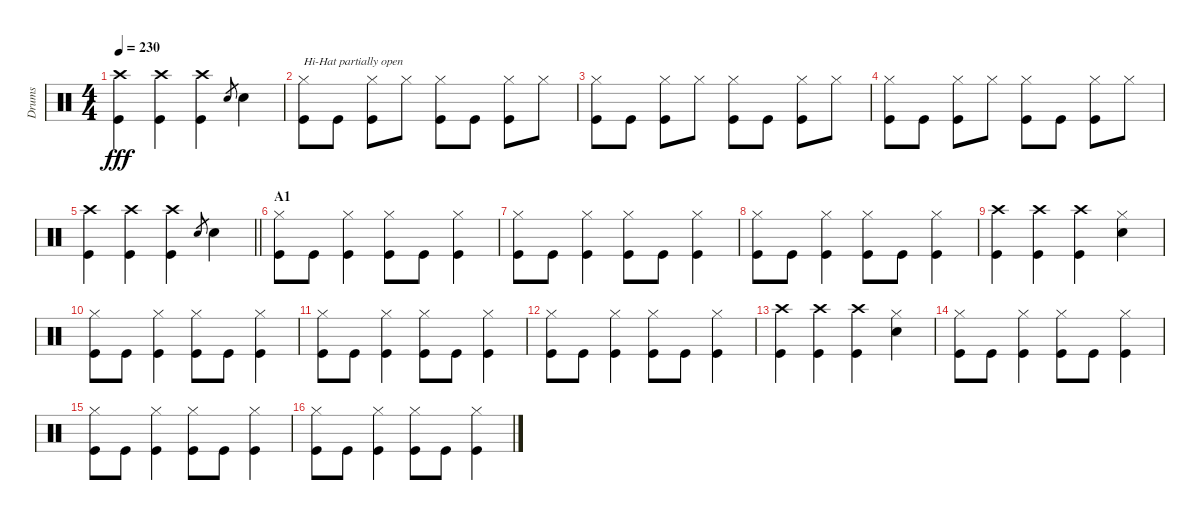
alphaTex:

\track ("Drums" "Drums") {instrument percussion}
\staff {score}
\articulation defaults
\ts (4 4)
\tempo 230
\clef neutral
\ks c
("Crash high (hit)" "Kick (hit)").4{dy fff} ("Crash high (hit)" "Kick (hit)").4 ("Crash high (hit)" "Kick (hit)").4 "Snare (hit) 2".8{gr} "Snare (hit) 2".4 |
("Hi-Hat (closed)" "Kick (hit)").8{txt "Hi-Hat partially open"} "Kick (hit)".8 ("Hi-Hat (closed)" "Kick (hit)").8 "Hi-Hat (closed)".8 ("Hi-Hat (closed)" "Kick (hit)").8 "Kick (hit)".8 ("Hi-Hat (closed)" "Kick (hit)").8 "Hi-Hat (closed)".8 |
("Hi-Hat (closed)" "Kick (hit)").8 "Kick (hit)".8 ("Hi-Hat (closed)" "Kick (hit)").8 "Hi-Hat (closed)".8 ("Hi-Hat (closed)" "Kick (hit)").8 "Kick (hit)".8 ("Hi-Hat (closed)" "Kick (hit)").8 "Hi-Hat (closed)".8 |
("Hi-Hat (closed)" "Kick (hit)").8 "Kick (hit)".8 ("Hi-Hat (closed)" "Kick (hit)").8 "Hi-Hat (closed)".8 ("Hi-Hat (closed)" "Kick (hit)").8 "Kick (hit)".8 ("Hi-Hat (closed)" "Kick (hit)").8 "Hi-Hat (closed)".8 |
\barLineRight lightlight
("Crash high (hit)" "Kick (hit)").4 ("Crash high (hit)" "Kick (hit)").4 ("Crash high (hit)" "Kick (hit)").4 "Snare (hit) 2".8{gr} "Snare (hit) 2".4 |
\section ("" "A1")
("Hi-Hat (closed)" "Kick (hit)").8 "Kick (hit)".8 ("Hi-Hat (closed)" "Kick (hit)").4 ("Hi-Hat (closed)" "Kick (hit)").8 "Kick (hit)".8 ("Hi-Hat (closed)" "Kick (hit)").4 |
("Hi-Hat (closed)" "Kick (hit)").8 "Kick (hit)".8 ("Hi-Hat (closed)" "Kick (hit)").4 ("Hi-Hat (closed)" "Kick (hit)").8 "Kick (hit)".8 ("Hi-Hat (closed)" "Kick (hit)").4 |
("Hi-Hat (closed)" "Kick (hit)").8 "Kick (hit)".8 ("Hi-Hat (closed)" "Kick (hit)").4 ("Hi-Hat (closed)" "Kick (hit)").8 "Kick (hit)".8 ("Hi-Hat (closed)" "Kick (hit)").4 |
("Crash high (hit)" "Kick (hit)").4 ("Crash high (hit)" "Kick (hit)").4 ("Crash high (hit)" "Kick (hit)").4 ("Hi-Hat (closed)" "Snare (hit) 2").4 |
("Hi-Hat (closed)" "Kick (hit)").8 "Kick (hit)".8 ("Hi-Hat (closed)" "Kick (hit)").4 ("Hi-Hat (closed)" "Kick (hit)").8 "Kick (hit)".8 ("Hi-Hat (closed)" "Kick (hit)").4 |
("Hi-Hat (closed)" "Kick (hit)").8 "Kick (hit)".8 ("Hi-Hat (closed)" "Kick (hit)").4 ("Hi-Hat (closed)" "Kick (hit)").8 "Kick (hit)".8 ("Hi-Hat (closed)" "Kick (hit)").4 |
("Hi-Hat (closed)" "Kick (hit)").8 "Kick (hit)".8 ("Hi-Hat (closed)" "Kick (hit)").4 ("Hi-Hat (closed)" "Kick (hit)").8 "Kick (hit)".8 ("Hi-Hat (closed)" "Kick (hit)").4 |
("Crash high (hit)" "Kick (hit)").4 ("Crash high (hit)" "Kick (hit)").4 ("Crash high (hit)" "Kick (hit)").4 ("Hi-Hat (closed)" "Snare (hit) 2").4 |
("Hi-Hat (closed)" "Kick (hit)").8 "Kick (hit)".8 ("Hi-Hat (closed)" "Kick (hit)").4 ("Hi-Hat (closed)" "Kick (hit)").8 "Kick (hit)".8 ("Hi-Hat (closed)" "Kick (hit)").4 |
("Hi-Hat (closed)" "Kick (hit)").8 "Kick (hit)".8 ("Hi-Hat (closed)" "Kick (hit)").4 ("Hi-Hat (closed)" "Kick (hit)").8 "Kick (hit)".8 ("Hi-Hat (closed)" "Kick (hit)").4 |
("Hi-Hat (closed)" "Kick (hit)").8 "Kick (hit)".8 ("Hi-Hat (closed)" "Kick (hit)").4 ("Hi-Hat (closed)" "Kick (hit)").8 "Kick (hit)".8 ("Hi-Hat (closed)" "Kick (hit)").4
